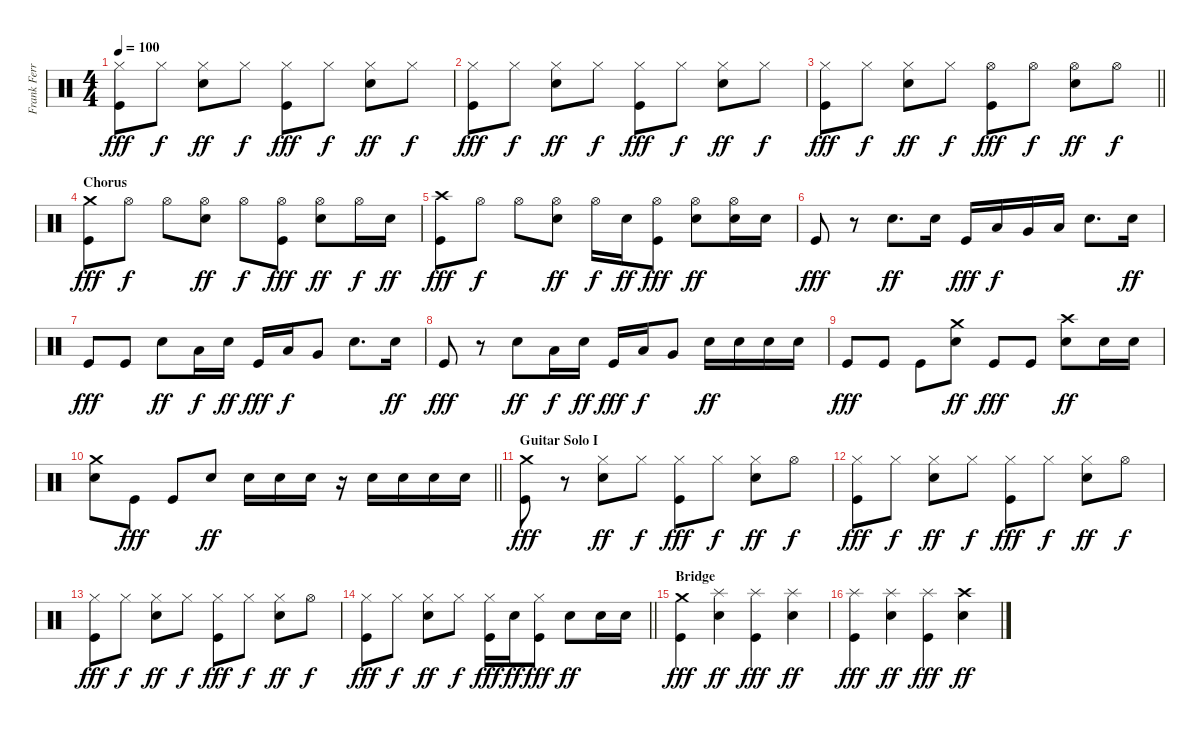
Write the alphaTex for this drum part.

\track ("Frank Ferrer" "Frank Ferr") {instrument percussion}
\staff {score}
\articulation defaults
\ts (4 4)
\tempo 100
\clef neutral
\ks c
("Kick (hit)" "Hi-Hat (closed)").8{dy fff} "Hi-Hat (closed)".8{dy f} ("Snare (hit) 2" "Hi-Hat (closed)").8{dy ff} "Hi-Hat (closed)".8{dy f} ("Kick (hit)" "Hi-Hat (closed)").8{dy fff} "Hi-Hat (closed)".8{dy f} ("Snare (hit) 2" "Hi-Hat (closed)").8{dy ff} "Hi-Hat (closed)".8{dy f} |
("Kick (hit)" "Hi-Hat (closed)").8{dy fff} "Hi-Hat (closed)".8{dy f} ("Snare (hit) 2" "Hi-Hat (closed)").8{dy ff} "Hi-Hat (closed)".8{dy f} ("Kick (hit)" "Hi-Hat (closed)").8{dy fff} "Hi-Hat (closed)".8{dy f} ("Snare (hit) 2" "Hi-Hat (closed)").8{dy ff} "Hi-Hat (closed)".8{dy f} |
\barLineRight lightlight
("Kick (hit)" "Hi-Hat (closed)").8{dy fff} "Hi-Hat (closed)".8{dy f} ("Snare (hit) 2" "Hi-Hat (closed)").8{dy ff} "Hi-Hat (closed)".8{dy f} ("Kick (hit)" "Hi-Hat (open)").8{dy fff} "Hi-Hat (open)".8{dy f} ("Snare (hit) 2" "Hi-Hat (open)").8{dy ff} "Hi-Hat (open)".8{dy f} |
\section ("" "Chorus")
("Kick (hit)" "Crash medium (hit)").8{dy fff} "Hi-Hat (open)".8{dy f} "Hi-Hat (open)".8 ("Snare (hit) 2" "Hi-Hat (open)").8{dy ff} "Hi-Hat (open)".8{dy f} ("Kick (hit)" "Hi-Hat (open)").8{dy fff} ("Snare (hit) 2" "Hi-Hat (open)").8{dy ff} "Hi-Hat (open)".16{dy f} "Snare (hit) 2".16{dy ff} |
("Kick (hit)" "Crash high (hit)").8{dy fff} "Hi-Hat (open)".8{dy f} "Hi-Hat (open)".8 ("Snare (hit) 2" "Hi-Hat (open)").8{dy ff} "Hi-Hat (open)".16{dy f} "Snare (hit) 2".16{dy ff} ("Kick (hit)" "Hi-Hat (open)").8{dy fff} ("Snare (hit) 2" "Hi-Hat (open)").8{dy ff} ("Snare (hit) 2" "Hi-Hat (open)").16 "Snare (hit) 2".16 |
"Kick (hit)".8{dy fff} r.8 "Snare (hit) 2".8{d dy ff} "Snare (hit) 2".16 "Kick (hit)".16{dy fff} "Low Tom (hit)".16{dy f} "Very Low Tom (hit)".16 "Low Floor Tom (hit)".16 "Snare (hit) 2".8{d} "Snare (hit) 2".16{dy ff} |
"Kick (hit)".8{dy fff} "Kick (hit)".8 "Snare (hit) 2".8{dy ff} "Low Tom (hit)".16{dy f} "Snare (hit) 2".16{dy ff} "Kick (hit)".16{dy fff} "Low Tom (hit)".16{dy f} "Very Low Tom (hit)".8 "Snare (hit) 2".8{d} "Snare (hit) 2".16{dy ff} |
"Kick (hit)".8{dy fff} r.8 "Snare (hit) 2".8{dy ff} "Low Tom (hit)".16{dy f} "Snare (hit) 2".16{dy ff} "Kick (hit)".16{dy fff} "Low Tom (hit)".16{dy f} "Very Low Tom (hit)".8 "Snare (hit) 2".16{dy ff} "Snare (hit) 2".16 "Snare (hit) 2".16 "Snare (hit) 2".16 |
"Kick (hit)".8{dy fff} "Kick (hit)".8 "Kick (hit)".8 ("Snare (hit) 2" "Crash medium (hit)").8{dy ff} "Kick (hit)".8{dy fff} "Kick (hit)".8 ("Snare (hit) 2" "Crash high (hit)").8{dy ff} "Snare (hit) 2".16 "Snare (hit) 2".16 |
\barLineRight lightlight
("Snare (hit) 2" "Crash medium (hit)").8 "Kick (hit)".8{dy fff} "Kick (hit)".8 "Snare (hit) 2".8{dy ff} "Snare (hit) 2".16 "Snare (hit) 2".16 "Snare (hit) 2".16 r.16 "Snare (hit) 2".16 "Snare (hit) 2".16 "Snare (hit) 2".16 "Snare (hit) 2".16 |
\section ("" "Guitar Solo I")
("Kick (hit)" "Crash medium (hit)").8{dy fff} r.8 ("Snare (hit) 2" "Hi-Hat (closed)").8{dy ff} "Hi-Hat (closed)".8{dy f} ("Kick (hit)" "Hi-Hat (closed)").8{dy fff} "Hi-Hat (closed)".8{dy f} ("Snare (hit) 2" "Hi-Hat (closed)").8{dy ff} "Hi-Hat (open)".8{dy f} |
("Kick (hit)" "Hi-Hat (closed)").8{dy fff} "Hi-Hat (closed)".8{dy f} ("Snare (hit) 2" "Hi-Hat (closed)").8{dy ff} "Hi-Hat (closed)".8{dy f} ("Kick (hit)" "Hi-Hat (closed)").8{dy fff} "Hi-Hat (closed)".8{dy f} ("Snare (hit) 2" "Hi-Hat (closed)").8{dy ff} "Hi-Hat (open)".8{dy f} |
("Kick (hit)" "Hi-Hat (closed)").8{dy fff} "Hi-Hat (closed)".8{dy f} ("Snare (hit) 2" "Hi-Hat (closed)").8{dy ff} "Hi-Hat (closed)".8{dy f} ("Kick (hit)" "Hi-Hat (closed)").8{dy fff} "Hi-Hat (closed)".8{dy f} ("Snare (hit) 2" "Hi-Hat (closed)").8{dy ff} "Hi-Hat (open)".8{dy f} |
\barLineRight lightlight
("Kick (hit)" "Hi-Hat (closed)").8{dy fff} "Hi-Hat (closed)".8{dy f} ("Snare (hit) 2" "Hi-Hat (closed)").8{dy ff} "Hi-Hat (closed)".8{dy f} ("Kick (hit)" "Hi-Hat (closed)").16{dy fff} "Snare (hit) 2".16{dy ff} ("Kick (hit)" "Hi-Hat (closed)").8{dy fff} "Snare (hit) 2".8{dy ff} "Snare (hit) 2".16 "Snare (hit) 2".16 |
\section ("" "Bridge")
("Kick (hit)" "Crash medium (hit)").4{dy fff} ("Snare (hit) 2" "Splash (hit)").4{dy ff} ("Kick (hit)" "Splash (hit)").4{dy fff} ("Snare (hit) 2" "Splash (hit)").4{dy ff} |
("Kick (hit)" "Splash (hit)").4{dy fff} ("Snare (hit) 2" "Splash (hit)").4{dy ff} ("Kick (hit)" "Splash (hit)").4{dy fff} ("Snare (hit) 2" "Crash high (hit)").4{dy ff}
